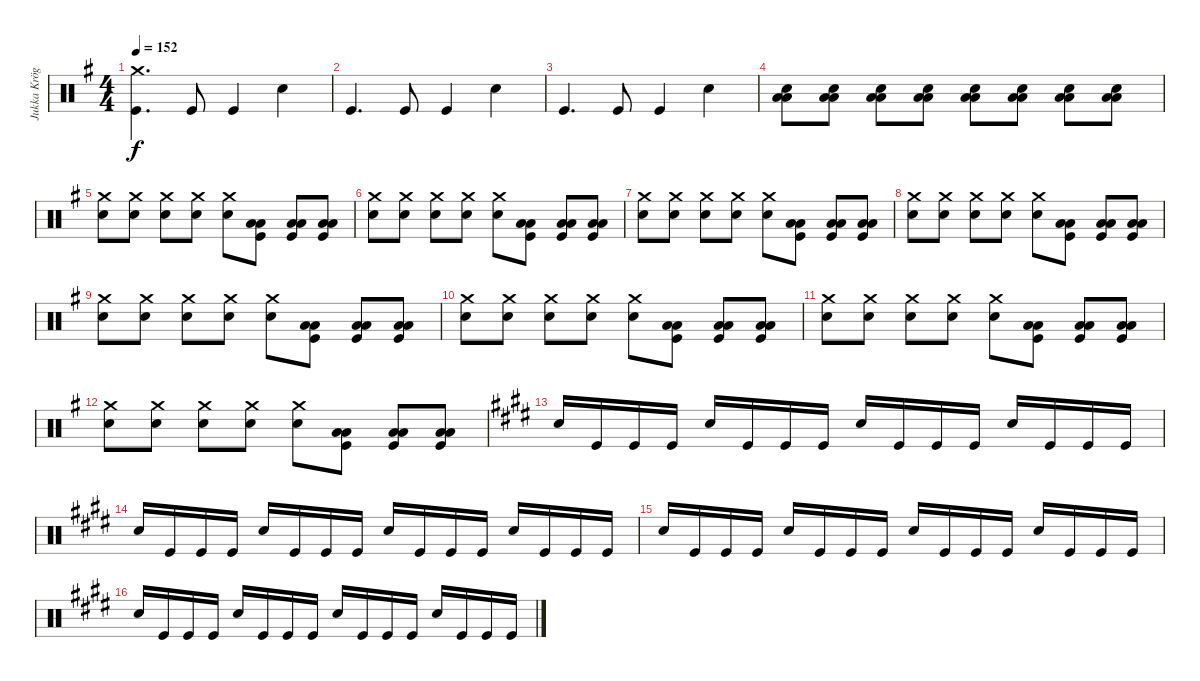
\track ("Jukka Kröger" "Jukka Krög") {instrument percussion}
\staff {score}
\articulation defaults
\ts (4 4)
\tempo 152
\clef neutral
\ks eminor
("Crash medium (hit)" "Kick (hit)").4{d dy f} "Kick (hit)".8 "Kick (hit)".4 "Snare (hit) 2".4 |
"Kick (hit)".4{d} "Kick (hit)".8 "Kick (hit)".4 "Snare (hit) 2".4 |
"Kick (hit)".4{d} "Kick (hit)".8 "Kick (hit)".4 "Snare (hit) 2".4 |
("Snare (hit) 2" "Low Tom (hit)" "Low Floor Tom (hit)").8 ("Snare (hit) 2" "Low Tom (hit)" "Low Floor Tom (hit)").8 ("Snare (hit) 2" "Low Tom (hit)" "Low Floor Tom (hit)").8 ("Snare (hit) 2" "Low Tom (hit)" "Low Floor Tom (hit)").8 ("Snare (hit) 2" "Low Tom (hit)" "Low Floor Tom (hit)").8 ("Snare (hit) 2" "Low Tom (hit)" "Low Floor Tom (hit)").8 ("Snare (hit) 2" "Low Tom (hit)" "Low Floor Tom (hit)").8 ("Snare (hit) 2" "Low Tom (hit)" "Low Floor Tom (hit)").8 |
("Crash medium (hit)" "Snare (hit) 2").8 ("Crash medium (hit)" "Snare (hit) 2").8 ("Crash medium (hit)" "Snare (hit) 2").8 ("Crash medium (hit)" "Snare (hit) 2").8 ("Crash medium (hit)" "Snare (hit) 2").8 ("Kick (hit)" "Low Tom (hit)" "Low Floor Tom (hit)").8 ("Kick (hit)" "Low Tom (hit)" "Low Floor Tom (hit)").8 ("Kick (hit)" "Low Tom (hit)" "Low Floor Tom (hit)").8 |
("Crash medium (hit)" "Snare (hit) 2").8 ("Crash medium (hit)" "Snare (hit) 2").8 ("Crash medium (hit)" "Snare (hit) 2").8 ("Crash medium (hit)" "Snare (hit) 2").8 ("Crash medium (hit)" "Snare (hit) 2").8 ("Kick (hit)" "Low Tom (hit)" "Low Floor Tom (hit)").8 ("Kick (hit)" "Low Tom (hit)" "Low Floor Tom (hit)").8 ("Kick (hit)" "Low Tom (hit)" "Low Floor Tom (hit)").8 |
("Crash medium (hit)" "Snare (hit) 2").8 ("Crash medium (hit)" "Snare (hit) 2").8 ("Crash medium (hit)" "Snare (hit) 2").8 ("Crash medium (hit)" "Snare (hit) 2").8 ("Crash medium (hit)" "Snare (hit) 2").8 ("Kick (hit)" "Low Tom (hit)" "Low Floor Tom (hit)").8 ("Kick (hit)" "Low Tom (hit)" "Low Floor Tom (hit)").8 ("Kick (hit)" "Low Tom (hit)" "Low Floor Tom (hit)").8 |
("Crash medium (hit)" "Snare (hit) 2").8 ("Crash medium (hit)" "Snare (hit) 2").8 ("Crash medium (hit)" "Snare (hit) 2").8 ("Crash medium (hit)" "Snare (hit) 2").8 ("Crash medium (hit)" "Snare (hit) 2").8 ("Kick (hit)" "Low Tom (hit)" "Low Floor Tom (hit)").8 ("Kick (hit)" "Low Tom (hit)" "Low Floor Tom (hit)").8 ("Kick (hit)" "Low Tom (hit)" "Low Floor Tom (hit)").8 |
("Crash medium (hit)" "Snare (hit) 2").8 ("Crash medium (hit)" "Snare (hit) 2").8 ("Crash medium (hit)" "Snare (hit) 2").8 ("Crash medium (hit)" "Snare (hit) 2").8 ("Crash medium (hit)" "Snare (hit) 2").8 ("Kick (hit)" "Low Tom (hit)" "Low Floor Tom (hit)").8 ("Kick (hit)" "Low Tom (hit)" "Low Floor Tom (hit)").8 ("Kick (hit)" "Low Tom (hit)" "Low Floor Tom (hit)").8 |
("Crash medium (hit)" "Snare (hit) 2").8 ("Crash medium (hit)" "Snare (hit) 2").8 ("Crash medium (hit)" "Snare (hit) 2").8 ("Crash medium (hit)" "Snare (hit) 2").8 ("Crash medium (hit)" "Snare (hit) 2").8 ("Kick (hit)" "Low Tom (hit)" "Low Floor Tom (hit)").8 ("Kick (hit)" "Low Tom (hit)" "Low Floor Tom (hit)").8 ("Kick (hit)" "Low Tom (hit)" "Low Floor Tom (hit)").8 |
("Crash medium (hit)" "Snare (hit) 2").8 ("Crash medium (hit)" "Snare (hit) 2").8 ("Crash medium (hit)" "Snare (hit) 2").8 ("Crash medium (hit)" "Snare (hit) 2").8 ("Crash medium (hit)" "Snare (hit) 2").8 ("Kick (hit)" "Low Tom (hit)" "Low Floor Tom (hit)").8 ("Kick (hit)" "Low Tom (hit)" "Low Floor Tom (hit)").8 ("Kick (hit)" "Low Tom (hit)" "Low Floor Tom (hit)").8 |
("Crash medium (hit)" "Snare (hit) 2").8 ("Crash medium (hit)" "Snare (hit) 2").8 ("Crash medium (hit)" "Snare (hit) 2").8 ("Crash medium (hit)" "Snare (hit) 2").8 ("Crash medium (hit)" "Snare (hit) 2").8 ("Kick (hit)" "Low Tom (hit)" "Low Floor Tom (hit)").8 ("Kick (hit)" "Low Tom (hit)" "Low Floor Tom (hit)").8 ("Kick (hit)" "Low Tom (hit)" "Low Floor Tom (hit)").8 |
\ks e "Snare (hit) 2".16 "Kick (hit)".16 "Kick (hit)".16 "Kick (hit)".16 "Snare (hit) 2".16 "Kick (hit)".16 "Kick (hit)".16 "Kick (hit)".16 "Snare (hit) 2".16 "Kick (hit)".16 "Kick (hit)".16 "Kick (hit)".16 "Snare (hit) 2".16 "Kick (hit)".16 "Kick (hit)".16 "Kick (hit)".16
|
"Snare (hit) 2".16 "Kick (hit)".16 "Kick (hit)".16 "Kick (hit)".16 "Snare (hit) 2".16 "Kick (hit)".16 "Kick (hit)".16 "Kick (hit)".16 "Snare (hit) 2".16 "Kick (hit)".16 "Kick (hit)".16 "Kick (hit)".16 "Snare (hit) 2".16 "Kick (hit)".16 "Kick (hit)".16 "Kick (hit)".16 |
"Snare (hit) 2".16 "Kick (hit)".16 "Kick (hit)".16 "Kick (hit)".16 "Snare (hit) 2".16 "Kick (hit)".16 "Kick (hit)".16 "Kick (hit)".16 "Snare (hit) 2".16 "Kick (hit)".16 "Kick (hit)".16 "Kick (hit)".16 "Snare (hit) 2".16 "Kick (hit)".16 "Kick (hit)".16 "Kick (hit)".16 |
"Snare (hit) 2".16 "Kick (hit)".16 "Kick (hit)".16 "Kick (hit)".16 "Snare (hit) 2".16 "Kick (hit)".16 "Kick (hit)".16 "Kick (hit)".16 "Snare (hit) 2".16 "Kick (hit)".16 "Kick (hit)".16 "Kick (hit)".16 "Snare (hit) 2".16 "Kick (hit)".16 "Kick (hit)".16 "Kick (hit)".16
